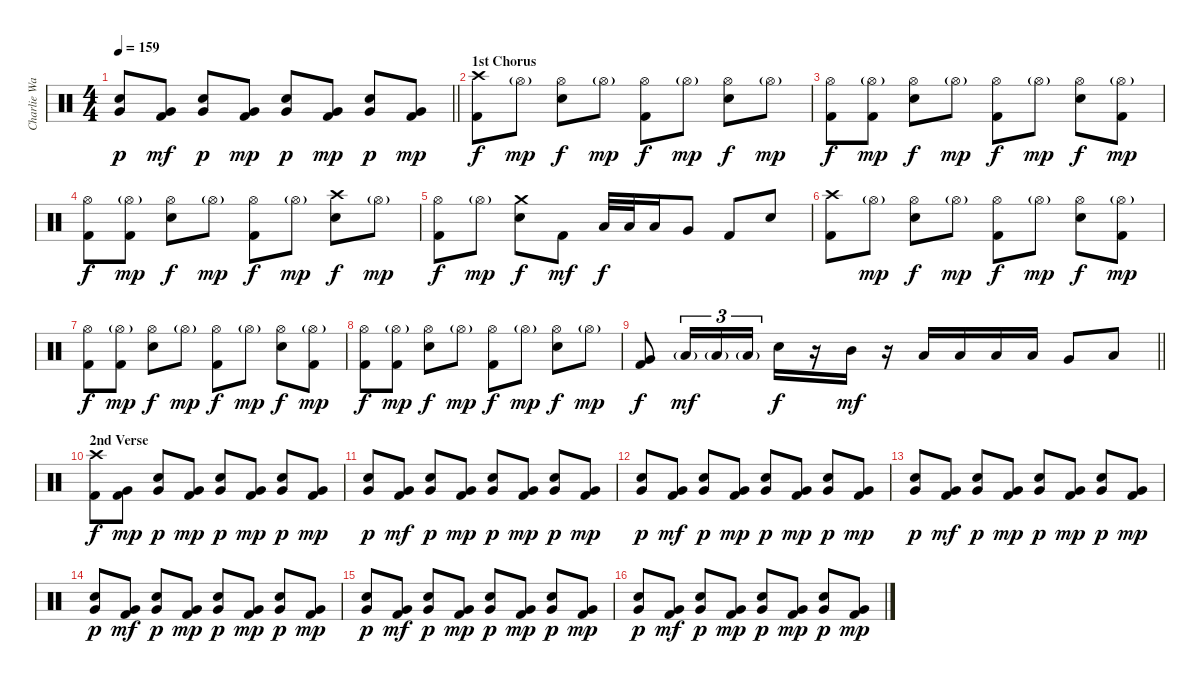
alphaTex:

\track ("Charlie Watts (Drums)" "Charlie Wa") {instrument percussion}
\staff {score}
\articulation defaults
\ts (4 4)
\tempo 159
\clef neutral
\barLineRight lightlight
\ks c
("Very Low Tom (hit)" "Electric Snare (hit)").8{dy p} ("Very Low Tom (hit)" "Kick (hit) 2").8{dy mf} ("Very Low Tom (hit)" "Electric Snare (hit)").8{dy p} ("Very Low Tom (hit)" "Kick (hit) 2").8{dy mp} ("Very Low Tom (hit)" "Electric Snare (hit)").8{dy p} ("Very Low Tom (hit)" "Kick (hit) 2").8{dy mp} ("Very Low Tom (hit)" "Electric Snare (hit)").8{dy p} ("Very Low Tom (hit)" "Kick (hit) 2").8{dy mp} |
\section ("" "1st Chorus")
("Crash high (hit)" "Kick (hit) 2").8{dy f} "Hi-Hat (open)"{g}.8{dy mp} ("Hi-Hat (open)" "Electric Snare (hit)").8{dy f} "Hi-Hat (open)"{g}.8{dy mp} ("Hi-Hat (open)" "Kick (hit) 2").8{dy f} "Hi-Hat (open)"{g}.8{dy mp} ("Hi-Hat (open)" "Electric Snare (hit)").8{dy f} "Hi-Hat (open)"{g}.8{dy mp} |
("Hi-Hat (open)" "Kick (hit) 2").8{dy f} ("Hi-Hat (open)"{g} "Kick (hit) 2").8{dy mp} ("Hi-Hat (open)" "Electric Snare (hit)").8{dy f} "Hi-Hat (open)"{g}.8{dy mp} ("Hi-Hat (open)" "Kick (hit) 2").8{dy f} "Hi-Hat (open)"{g}.8{dy mp} ("Hi-Hat (open)" "Electric Snare (hit)").8{dy f} ("Hi-Hat (open)"{g} "Kick (hit) 2").8{dy mp} |
("Hi-Hat (open)" "Kick (hit) 2").8{dy f} ("Hi-Hat (open)"{g} "Kick (hit) 2").8{dy mp} ("Hi-Hat (open)" "Electric Snare (hit)").8{dy f} "Hi-Hat (open)"{g}.8{dy mp} ("Hi-Hat (open)" "Kick (hit) 2").8{dy f} "Hi-Hat (open)"{g}.8{dy mp} ("Crash high (hit)" "Electric Snare (hit)").8{dy f} "Hi-Hat (open)"{g}.8{dy mp} |
("Hi-Hat (open)" "Kick (hit) 2").8{dy f} "Hi-Hat (open)"{g}.8{dy mp} ("Crash medium (hit)" "Electric Snare (hit)").8{dy f} "Kick (hit) 2".8{dy mf} "Low Tom (hit)".32{dy f} "Low Tom (hit)".32 "Low Tom (hit)".16 "Very Low Tom (hit)".8 "Kick (hit) 2".8 "Electric Snare (hit)".8 |
("Crash high (hit)" "Kick (hit) 2").8 "Hi-Hat (open)"{g}.8{dy mp} ("Hi-Hat (open)" "Electric Snare (hit)").8{dy f} "Hi-Hat (open)"{g}.8{dy mp} ("Hi-Hat (open)" "Kick (hit) 2").8{dy f} "Hi-Hat (open)"{g}.8{dy mp} ("Hi-Hat (open)" "Electric Snare (hit)").8{dy f} ("Hi-Hat (open)"{g} "Kick (hit) 2").8{dy mp} |
("Hi-Hat (open)" "Kick (hit) 2").8{dy f} ("Hi-Hat (open)"{g} "Kick (hit) 2").8{dy mp} ("Hi-Hat (open)" "Electric Snare (hit)").8{dy f} "Hi-Hat (open)"{g}.8{dy mp} ("Hi-Hat (open)" "Kick (hit) 2").8{dy f} "Hi-Hat (open)"{g}.8{dy mp} ("Hi-Hat (open)" "Electric Snare (hit)").8{dy f} ("Hi-Hat (open)"{g} "Kick (hit) 2").8{dy mp} |
("Hi-Hat (open)" "Kick (hit) 2").8{dy f} ("Hi-Hat (open)"{g} "Kick (hit) 2").8{dy mp} ("Hi-Hat (open)" "Electric Snare (hit)").8{dy f} "Hi-Hat (open)"{g}.8{dy mp} ("Hi-Hat (open)" "Kick (hit) 2").8{dy f} "Hi-Hat (open)"{g}.8{dy mp} ("Hi-Hat (open)" "Electric Snare (hit)").8{dy f} "Hi-Hat (open)"{g}.8{dy mp} |
\barLineRight lightlight
("Very Low Tom (hit)" "Kick (hit) 2").8{dy f} "Low Floor Tom (hit)"{g}.16{tu (3 2) dy mf} "Low Floor Tom (hit)"{g}.16{tu (3 2)} "Low Floor Tom (hit)"{g}.16{tu (3 2)} "Electric Snare (hit)".16{dy f} r.16 "Mid Tom (hit)".16{dy mf} r.16 "Low Tom (hit)".16 "Low Tom (hit)".16 "Low Tom (hit)".16 "Low Tom (hit)".16 "Very Low Tom (hit)".8 "Low Floor Tom (hit)".8 |
\section ("" "2nd Verse")
("Crash high (hit)" "Kick (hit) 2").8{dy f} ("Very Low Tom (hit)" "Kick (hit) 2").8{dy mp} ("Very Low Tom (hit)" "Electric Snare (hit)").8{dy p} ("Very Low Tom (hit)" "Kick (hit) 2").8{dy mp} ("Very Low Tom (hit)" "Electric Snare (hit)").8{dy p} ("Very Low Tom (hit)" "Kick (hit) 2").8{dy mp} ("Very Low Tom (hit)" "Electric Snare (hit)").8{dy p} ("Very Low Tom (hit)" "Kick (hit) 2").8{dy mp} |
("Very Low Tom (hit)" "Electric Snare (hit)").8{dy p} ("Very Low Tom (hit)" "Kick (hit) 2").8{dy mf} ("Very Low Tom (hit)" "Electric Snare (hit)").8{dy p} ("Very Low Tom (hit)" "Kick (hit) 2").8{dy mp} ("Very Low Tom (hit)" "Electric Snare (hit)").8{dy p} ("Very Low Tom (hit)" "Kick (hit) 2").8{dy mp} ("Very Low Tom (hit)" "Electric Snare (hit)").8{dy p} ("Very Low Tom (hit)" "Kick (hit) 2").8{dy mp} |
("Very Low Tom (hit)" "Electric Snare (hit)").8{dy p} ("Very Low Tom (hit)" "Kick (hit) 2").8{dy mf} ("Very Low Tom (hit)" "Electric Snare (hit)").8{dy p} ("Very Low Tom (hit)" "Kick (hit) 2").8{dy mp} ("Very Low Tom (hit)" "Electric Snare (hit)").8{dy p} ("Very Low Tom (hit)" "Kick (hit) 2").8{dy mp} ("Very Low Tom (hit)" "Electric Snare (hit)").8{dy p} ("Very Low Tom (hit)" "Kick (hit) 2").8{dy mp} |
("Very Low Tom (hit)" "Electric Snare (hit)").8{dy p} ("Very Low Tom (hit)" "Kick (hit) 2").8{dy mf} ("Very Low Tom (hit)" "Electric Snare (hit)").8{dy p} ("Very Low Tom (hit)" "Kick (hit) 2").8{dy mp} ("Very Low Tom (hit)" "Electric Snare (hit)").8{dy p} ("Very Low Tom (hit)" "Kick (hit) 2").8{dy mp} ("Very Low Tom (hit)" "Electric Snare (hit)").8{dy p} ("Very Low Tom (hit)" "Kick (hit) 2").8{dy mp} |
("Very Low Tom (hit)" "Electric Snare (hit)").8{dy p} ("Very Low Tom (hit)" "Kick (hit) 2").8{dy mf} ("Very Low Tom (hit)" "Electric Snare (hit)").8{dy p} ("Very Low Tom (hit)" "Kick (hit) 2").8{dy mp} ("Very Low Tom (hit)" "Electric Snare (hit)").8{dy p} ("Very Low Tom (hit)" "Kick (hit) 2").8{dy mp} ("Very Low Tom (hit)" "Electric Snare (hit)").8{dy p} ("Very Low Tom (hit)" "Kick (hit) 2").8{dy mp} |
("Very Low Tom (hit)" "Electric Snare (hit)").8{dy p} ("Very Low Tom (hit)" "Kick (hit) 2").8{dy mf} ("Very Low Tom (hit)" "Electric Snare (hit)").8{dy p} ("Very Low Tom (hit)" "Kick (hit) 2").8{dy mp} ("Very Low Tom (hit)" "Electric Snare (hit)").8{dy p} ("Very Low Tom (hit)" "Kick (hit) 2").8{dy mp} ("Very Low Tom (hit)" "Electric Snare (hit)").8{dy p} ("Very Low Tom (hit)" "Kick (hit) 2").8{dy mp} |
("Very Low Tom (hit)" "Electric Snare (hit)").8{dy p} ("Very Low Tom (hit)" "Kick (hit) 2").8{dy mf} ("Very Low Tom (hit)" "Electric Snare (hit)").8{dy p} ("Very Low Tom (hit)" "Kick (hit) 2").8{dy mp} ("Very Low Tom (hit)" "Electric Snare (hit)").8{dy p} ("Very Low Tom (hit)" "Kick (hit) 2").8{dy mp} ("Very Low Tom (hit)" "Electric Snare (hit)").8{dy p} ("Very Low Tom (hit)" "Kick (hit) 2").8{dy mp}
